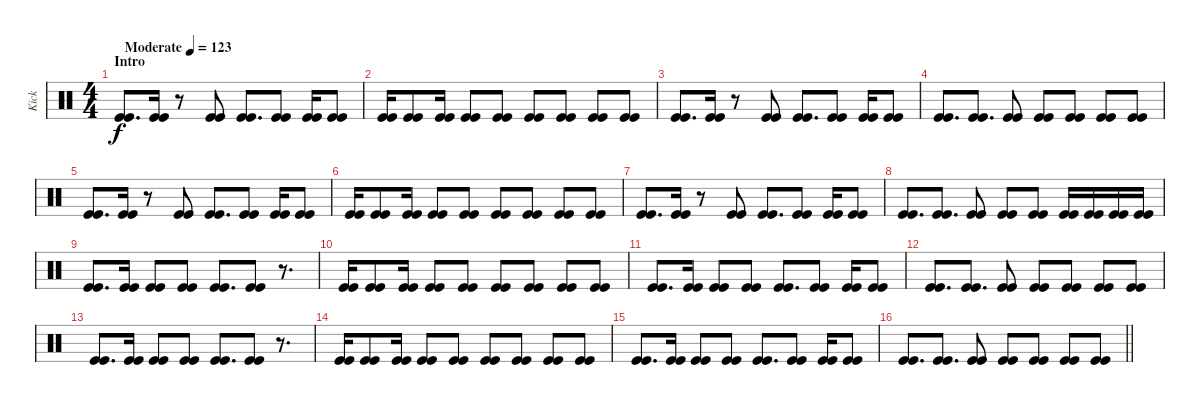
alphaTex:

\track ("Kick" "Kick") {instrument percussion}
\staff {score}
\articulation defaults
\ts (4 4)
\section ("" "Intro")
\tempo (123 "Moderate")
\clef neutral
\ks c
("Kick (hit)" "Kick (hit)").8{d dy f} ("Kick (hit)" "Kick (hit)").16 r.8 ("Kick (hit)" "Kick (hit)").8 ("Kick (hit)" "Kick (hit)").8{d} ("Kick (hit)" "Kick (hit)").8 ("Kick (hit)" "Kick (hit)").16 ("Kick (hit)" "Kick (hit)").8 |
("Kick (hit)" "Kick (hit)").16 ("Kick (hit)" "Kick (hit)").8 ("Kick (hit)" "Kick (hit)").16 ("Kick (hit)" "Kick (hit)").8 ("Kick (hit)" "Kick (hit)").8 ("Kick (hit)" "Kick (hit)").8 ("Kick (hit)" "Kick (hit)").8 ("Kick (hit)" "Kick (hit)").8 ("Kick (hit)" "Kick (hit)").8 |
("Kick (hit)" "Kick (hit)").8{d} ("Kick (hit)" "Kick (hit)").16 r.8 ("Kick (hit)" "Kick (hit)").8 ("Kick (hit)" "Kick (hit)").8{d} ("Kick (hit)" "Kick (hit)").8 ("Kick (hit)" "Kick (hit)").16 ("Kick (hit)" "Kick (hit)").8 |
("Kick (hit)" "Kick (hit)").8{d} ("Kick (hit)" "Kick (hit)").8{d} ("Kick (hit)" "Kick (hit)").8 ("Kick (hit)" "Kick (hit)").8 ("Kick (hit)" "Kick (hit)").8 ("Kick (hit)" "Kick (hit)").8 ("Kick (hit)" "Kick (hit)").8 |
("Kick (hit)" "Kick (hit)").8{d} ("Kick (hit)" "Kick (hit)").16 r.8 ("Kick (hit)" "Kick (hit)").8 ("Kick (hit)" "Kick (hit)").8{d} ("Kick (hit)" "Kick (hit)").8 ("Kick (hit)" "Kick (hit)").16 ("Kick (hit)" "Kick (hit)").8 |
("Kick (hit)" "Kick (hit)").16 ("Kick (hit)" "Kick (hit)").8 ("Kick (hit)" "Kick (hit)").16 ("Kick (hit)" "Kick (hit)").8 ("Kick (hit)" "Kick (hit)").8 ("Kick (hit)" "Kick (hit)").8 ("Kick (hit)" "Kick (hit)").8 ("Kick (hit)" "Kick (hit)").8 ("Kick (hit)" "Kick (hit)").8 |
("Kick (hit)" "Kick (hit)").8{d} ("Kick (hit)" "Kick (hit)").16 r.8 ("Kick (hit)" "Kick (hit)").8 ("Kick (hit)" "Kick (hit)").8{d} ("Kick (hit)" "Kick (hit)").8 ("Kick (hit)" "Kick (hit)").16 ("Kick (hit)" "Kick (hit)").8 |
("Kick (hit)" "Kick (hit)").8{d} ("Kick (hit)" "Kick (hit)").8{d} ("Kick (hit)" "Kick (hit)").8 ("Kick (hit)" "Kick (hit)").8 ("Kick (hit)" "Kick (hit)").8 ("Kick (hit)" "Kick (hit)").16 ("Kick (hit)" "Kick (hit)").16 ("Kick (hit)" "Kick (hit)").16 ("Kick (hit)" "Kick (hit)").16 |
("Kick (hit)" "Kick (hit)").8{d} ("Kick (hit)" "Kick (hit)").16 ("Kick (hit)" "Kick (hit)").8 ("Kick (hit)" "Kick (hit)").8 ("Kick (hit)" "Kick (hit)").8{d} ("Kick (hit)" "Kick (hit)").8 r.8{d} |
("Kick (hit)" "Kick (hit)").16 ("Kick (hit)" "Kick (hit)").8 ("Kick (hit)" "Kick (hit)").16 ("Kick (hit)" "Kick (hit)").8 ("Kick (hit)" "Kick (hit)").8 ("Kick (hit)" "Kick (hit)").8 ("Kick (hit)" "Kick (hit)").8 ("Kick (hit)" "Kick (hit)").8 ("Kick (hit)" "Kick (hit)").8 |
("Kick (hit)" "Kick (hit)").8{d} ("Kick (hit)" "Kick (hit)").16 ("Kick (hit)" "Kick (hit)").8 ("Kick (hit)" "Kick (hit)").8 ("Kick (hit)" "Kick (hit)").8{d} ("Kick (hit)" "Kick (hit)").8 ("Kick (hit)" "Kick (hit)").16 ("Kick (hit)" "Kick (hit)").8 |
("Kick (hit)" "Kick (hit)").8{d} ("Kick (hit)" "Kick (hit)").8{d} ("Kick (hit)" "Kick (hit)").8 ("Kick (hit)" "Kick (hit)").8 ("Kick (hit)" "Kick (hit)").8 ("Kick (hit)" "Kick (hit)").8 ("Kick (hit)" "Kick (hit)").8 |
("Kick (hit)" "Kick (hit)").8{d} ("Kick (hit)" "Kick (hit)").16 ("Kick (hit)" "Kick (hit)").8 ("Kick (hit)" "Kick (hit)").8 ("Kick (hit)" "Kick (hit)").8{d} ("Kick (hit)" "Kick (hit)").8 r.8{d} |
("Kick (hit)" "Kick (hit)").16 ("Kick (hit)" "Kick (hit)").8 ("Kick (hit)" "Kick (hit)").16 ("Kick (hit)" "Kick (hit)").8 ("Kick (hit)" "Kick (hit)").8 ("Kick (hit)" "Kick (hit)").8 ("Kick (hit)" "Kick (hit)").8 ("Kick (hit)" "Kick (hit)").8 ("Kick (hit)" "Kick (hit)").8 |
("Kick (hit)" "Kick (hit)").8{d} ("Kick (hit)" "Kick (hit)").16 ("Kick (hit)" "Kick (hit)").8 ("Kick (hit)" "Kick (hit)").8 ("Kick (hit)" "Kick (hit)").8{d} ("Kick (hit)" "Kick (hit)").8 ("Kick (hit)" "Kick (hit)").16 ("Kick (hit)" "Kick (hit)").8 |
\barLineRight lightlight
("Kick (hit)" "Kick (hit)").8{d} ("Kick (hit)" "Kick (hit)").8{d} ("Kick (hit)" "Kick (hit)").8 ("Kick (hit)" "Kick (hit)").8 ("Kick (hit)" "Kick (hit)").8 ("Kick (hit)" "Kick (hit)").8 ("Kick (hit)" "Kick (hit)").8
